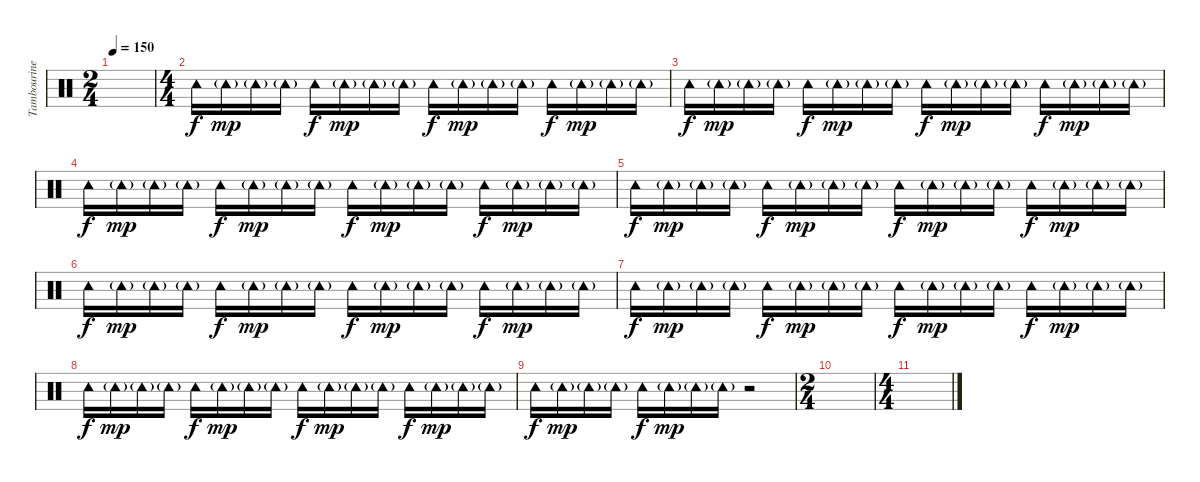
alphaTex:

\track ("Tambourine" "Tambourine") {instrument percussion}
\staff {score}
\articulation defaults
\ts (2 4)
\tempo 150
\clef neutral
\ks c
|
\ts (4 4)
"Tambourine (hit)".16 "Tambourine (hit)"{g}.16{dy mp} "Tambourine (hit)"{g}.16 "Tambourine (hit)"{g}.16 "Tambourine (hit)".16{dy f} "Tambourine (hit)"{g}.16{dy mp} "Tambourine (hit)"{g}.16 "Tambourine (hit)"{g}.16 "Tambourine (hit)".16{dy f} "Tambourine (hit)"{g}.16{dy mp} "Tambourine (hit)"{g}.16 "Tambourine (hit)"{g}.16 "Tambourine (hit)".16{dy f} "Tambourine (hit)"{g}.16{dy mp} "Tambourine (hit)"{g}.16 "Tambourine (hit)"{g}.16 |
"Tambourine (hit)".16{dy f} "Tambourine (hit)"{g}.16{dy mp} "Tambourine (hit)"{g}.16 "Tambourine (hit)"{g}.16 "Tambourine (hit)".16{dy f} "Tambourine (hit)"{g}.16{dy mp} "Tambourine (hit)"{g}.16 "Tambourine (hit)"{g}.16 "Tambourine (hit)".16{dy f} "Tambourine (hit)"{g}.16{dy mp} "Tambourine (hit)"{g}.16 "Tambourine (hit)"{g}.16 "Tambourine (hit)".16{dy f} "Tambourine (hit)"{g}.16{dy mp} "Tambourine (hit)"{g}.16 "Tambourine (hit)"{g}.16 |
"Tambourine (hit)".16{dy f} "Tambourine (hit)"{g}.16{dy mp} "Tambourine (hit)"{g}.16 "Tambourine (hit)"{g}.16 "Tambourine (hit)".16{dy f} "Tambourine (hit)"{g}.16{dy mp} "Tambourine (hit)"{g}.16 "Tambourine (hit)"{g}.16 "Tambourine (hit)".16{dy f} "Tambourine (hit)"{g}.16{dy mp} "Tambourine (hit)"{g}.16 "Tambourine (hit)"{g}.16 "Tambourine (hit)".16{dy f} "Tambourine (hit)"{g}.16{dy mp} "Tambourine (hit)"{g}.16 "Tambourine (hit)"{g}.16 |
"Tambourine (hit)".16{dy f} "Tambourine (hit)"{g}.16{dy mp} "Tambourine (hit)"{g}.16 "Tambourine (hit)"{g}.16 "Tambourine (hit)".16{dy f} "Tambourine (hit)"{g}.16{dy mp} "Tambourine (hit)"{g}.16 "Tambourine (hit)"{g}.16 "Tambourine (hit)".16{dy f} "Tambourine (hit)"{g}.16{dy mp} "Tambourine (hit)"{g}.16 "Tambourine (hit)"{g}.16 "Tambourine (hit)".16{dy f} "Tambourine (hit)"{g}.16{dy mp} "Tambourine (hit)"{g}.16 "Tambourine (hit)"{g}.16 |
"Tambourine (hit)".16{dy f} "Tambourine (hit)"{g}.16{dy mp} "Tambourine (hit)"{g}.16 "Tambourine (hit)"{g}.16 "Tambourine (hit)".16{dy f} "Tambourine (hit)"{g}.16{dy mp} "Tambourine (hit)"{g}.16 "Tambourine (hit)"{g}.16 "Tambourine (hit)".16{dy f} "Tambourine (hit)"{g}.16{dy mp} "Tambourine (hit)"{g}.16 "Tambourine (hit)"{g}.16 "Tambourine (hit)".16{dy f} "Tambourine (hit)"{g}.16{dy mp} "Tambourine (hit)"{g}.16 "Tambourine (hit)"{g}.16 |
"Tambourine (hit)".16{dy f} "Tambourine (hit)"{g}.16{dy mp} "Tambourine (hit)"{g}.16 "Tambourine (hit)"{g}.16 "Tambourine (hit)".16{dy f} "Tambourine (hit)"{g}.16{dy mp} "Tambourine (hit)"{g}.16 "Tambourine (hit)"{g}.16 "Tambourine (hit)".16{dy f} "Tambourine (hit)"{g}.16{dy mp} "Tambourine (hit)"{g}.16 "Tambourine (hit)"{g}.16 "Tambourine (hit)".16{dy f} "Tambourine (hit)"{g}.16{dy mp} "Tambourine (hit)"{g}.16 "Tambourine (hit)"{g}.16 |
"Tambourine (hit)".16{dy f} "Tambourine (hit)"{g}.16{dy mp} "Tambourine (hit)"{g}.16 "Tambourine (hit)"{g}.16 "Tambourine (hit)".16{dy f} "Tambourine (hit)"{g}.16{dy mp} "Tambourine (hit)"{g}.16 "Tambourine (hit)"{g}.16 "Tambourine (hit)".16{dy f} "Tambourine (hit)"{g}.16{dy mp} "Tambourine (hit)"{g}.16 "Tambourine (hit)"{g}.16 "Tambourine (hit)".16{dy f} "Tambourine (hit)"{g}.16{dy mp} "Tambourine (hit)"{g}.16 "Tambourine (hit)"{g}.16 |
"Tambourine (hit)".16{dy f} "Tambourine (hit)"{g}.16{dy mp} "Tambourine (hit)"{g}.16 "Tambourine (hit)"{g}.16 "Tambourine (hit)".16{dy f} "Tambourine (hit)"{g}.16{dy mp} "Tambourine (hit)"{g}.16 "Tambourine (hit)"{g}.16 r.2 |
\ts (2 4)
|
\ts (4 4)
